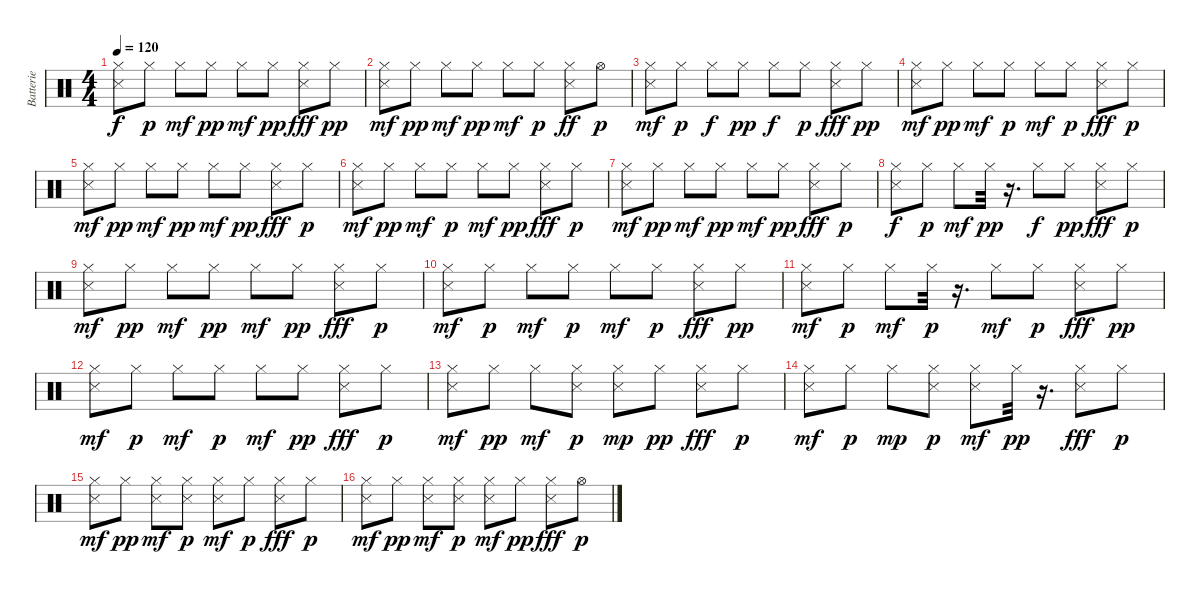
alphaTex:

\track ("Batterie" "Batterie") {instrument percussion}
\staff {score}
\articulation defaults
\ts (4 4)
\tempo 120
\clef neutral
\ks c
("Metronome (hit)" "Hi-Hat (closed)").8{dy f} "Hi-Hat (closed)".8{dy p} "Hi-Hat (closed)".8{dy mf} "Hi-Hat (closed)".8{dy pp} "Hi-Hat (closed)".8{dy mf} "Hi-Hat (closed)".8{dy pp} ("Snare (side stick) 3" "Hi-Hat (closed)").8{dy fff} "Hi-Hat (closed)".8{dy pp} |
("Metronome (hit)" "Hi-Hat (closed)").8{dy mf} "Hi-Hat (closed)".8{dy pp} "Hi-Hat (closed)".8{dy mf} "Hi-Hat (closed)".8{dy pp} "Hi-Hat (closed)".8{dy mf} "Hi-Hat (closed)".8{dy p} ("Snare (side stick) 3" "Hi-Hat (closed)").8{dy ff} "Hi-Hat (open)".8{dy p} |
("Metronome (hit)" "Hi-Hat (closed)").8{dy mf} "Hi-Hat (closed)".8{dy p} "Hi-Hat (closed)".8{dy f} "Hi-Hat (closed)".8{dy pp} "Hi-Hat (closed)".8{dy f} "Hi-Hat (closed)".8{dy p} ("Snare (side stick) 3" "Hi-Hat (closed)").8{dy fff} "Hi-Hat (closed)".8{dy pp} |
("Metronome (hit)" "Hi-Hat (closed)").8{dy mf} "Hi-Hat (closed)".8{dy pp} "Hi-Hat (closed)".8{dy mf} "Hi-Hat (closed)".8{dy p} "Hi-Hat (closed)".8{dy mf} "Hi-Hat (closed)".8{dy p} ("Snare (side stick) 3" "Hi-Hat (closed)").8{dy fff} "Hi-Hat (closed)".8{dy p} |
("Metronome (hit)" "Hi-Hat (closed)").8{dy mf} "Hi-Hat (closed)".8{dy pp} "Hi-Hat (closed)".8{dy mf} "Hi-Hat (closed)".8{dy pp} "Hi-Hat (closed)".8{dy mf} "Hi-Hat (closed)".8{dy pp} ("Snare (side stick) 3" "Hi-Hat (closed)").8{dy fff} "Hi-Hat (closed)".8{dy p} |
("Metronome (hit)" "Hi-Hat (closed)").8{dy mf} "Hi-Hat (closed)".8{dy pp} "Hi-Hat (closed)".8{dy mf} "Hi-Hat (closed)".8{dy p} "Hi-Hat (closed)".8{dy mf} "Hi-Hat (closed)".8{dy pp} ("Snare (side stick) 3" "Hi-Hat (closed)").8{dy fff} "Hi-Hat (closed)".8{dy p} |
("Metronome (hit)" "Hi-Hat (closed)").8{dy mf} "Hi-Hat (closed)".8{dy pp} "Hi-Hat (closed)".8{dy mf} "Hi-Hat (closed)".8{dy pp} "Hi-Hat (closed)".8{dy mf} "Hi-Hat (closed)".8{dy pp} ("Snare (side stick) 3" "Hi-Hat (closed)").8{dy fff} "Hi-Hat (closed)".8{dy p} |
("Metronome (hit)" "Hi-Hat (closed)").8{dy f} "Hi-Hat (closed)".8{dy p} "Hi-Hat (closed)".8{dy mf} "Hi-Hat (closed)".32{dy pp} r.16{d} "Hi-Hat (closed)".8{dy f} "Hi-Hat (closed)".8{dy pp} ("Snare (side stick) 3" "Hi-Hat (closed)").8{dy fff} "Hi-Hat (closed)".8{dy p} |
("Metronome (hit)" "Hi-Hat (closed)").8{dy mf} "Hi-Hat (closed)".8{dy pp} "Hi-Hat (closed)".8{dy mf} "Hi-Hat (closed)".8{dy pp} "Hi-Hat (closed)".8{dy mf} "Hi-Hat (closed)".8{dy pp} ("Snare (side stick) 3" "Hi-Hat (closed)").8{dy fff} "Hi-Hat (closed)".8{dy p} |
("Metronome (hit)" "Hi-Hat (closed)").8{dy mf} "Hi-Hat (closed)".8{dy p} "Hi-Hat (closed)".8{dy mf} "Hi-Hat (closed)".8{dy p} "Hi-Hat (closed)".8{dy mf} "Hi-Hat (closed)".8{dy p} ("Snare (side stick) 3" "Hi-Hat (closed)").8{dy fff} "Hi-Hat (closed)".8{dy pp} |
("Metronome (hit)" "Hi-Hat (closed)").8{dy mf} "Hi-Hat (closed)".8{dy p} "Hi-Hat (closed)".8{dy mf} "Hi-Hat (closed)".32{dy p} r.16{d} "Hi-Hat (closed)".8{dy mf} "Hi-Hat (closed)".8{dy p} ("Snare (side stick) 3" "Hi-Hat (closed)").8{dy fff} "Hi-Hat (closed)".8{dy pp} |
("Metronome (hit)" "Hi-Hat (closed)").8{dy mf} "Hi-Hat (closed)".8{dy p} "Hi-Hat (closed)".8{dy mf} "Hi-Hat (closed)".8{dy p} "Hi-Hat (closed)".8{dy mf} "Hi-Hat (closed)".8{dy pp} ("Snare (side stick) 3" "Hi-Hat (closed)").8{dy fff} "Hi-Hat (closed)".8{dy p} |
("Metronome (hit)" "Hi-Hat (closed)").8{dy mf} "Hi-Hat (closed)".8{dy pp} "Hi-Hat (closed)".8{dy mf} ("Metronome (hit)" "Hi-Hat (closed)").8{dy p} ("Metronome (hit)" "Hi-Hat (closed)").8{dy mp} "Hi-Hat (closed)".8{dy pp} ("Snare (side stick) 3" "Hi-Hat (closed)").8{dy fff} "Hi-Hat (closed)".8{dy p} |
("Metronome (hit)" "Hi-Hat (closed)").8{dy mf} "Hi-Hat (closed)".8{dy p} "Hi-Hat (closed)".8{dy mp} ("Metronome (hit)" "Hi-Hat (closed)").8{dy p} ("Metronome (hit)" "Hi-Hat (closed)").8{dy mf} "Hi-Hat (closed)".32{dy pp} r.16{d} ("Snare (side stick) 3" "Hi-Hat (closed)").8{dy fff} "Hi-Hat (closed)".8{dy p} |
("Metronome (hit)" "Hi-Hat (closed)").8{dy mf} "Hi-Hat (closed)".8{dy pp} ("Snare (side stick) 3" "Hi-Hat (closed)").8{dy mf} ("Metronome (hit)" "Hi-Hat (closed)").8{dy p} ("Metronome (hit)" "Hi-Hat (closed)").8{dy mf} "Hi-Hat (closed)".8{dy p} ("Snare (side stick) 3" "Hi-Hat (closed)").8{dy fff} "Hi-Hat (closed)".8{dy p} |
("Metronome (hit)" "Hi-Hat (closed)").8{dy mf} "Hi-Hat (closed)".8{dy pp} ("Snare (side stick) 3" "Hi-Hat (closed)").8{dy mf} ("Metronome (hit)" "Hi-Hat (closed)").8{dy p} ("Metronome (hit)" "Hi-Hat (closed)").8{dy mf} "Hi-Hat (closed)".8{dy pp} ("Snare (side stick) 3" "Hi-Hat (closed)").8{dy fff} "Hi-Hat (open)".8{dy p}
